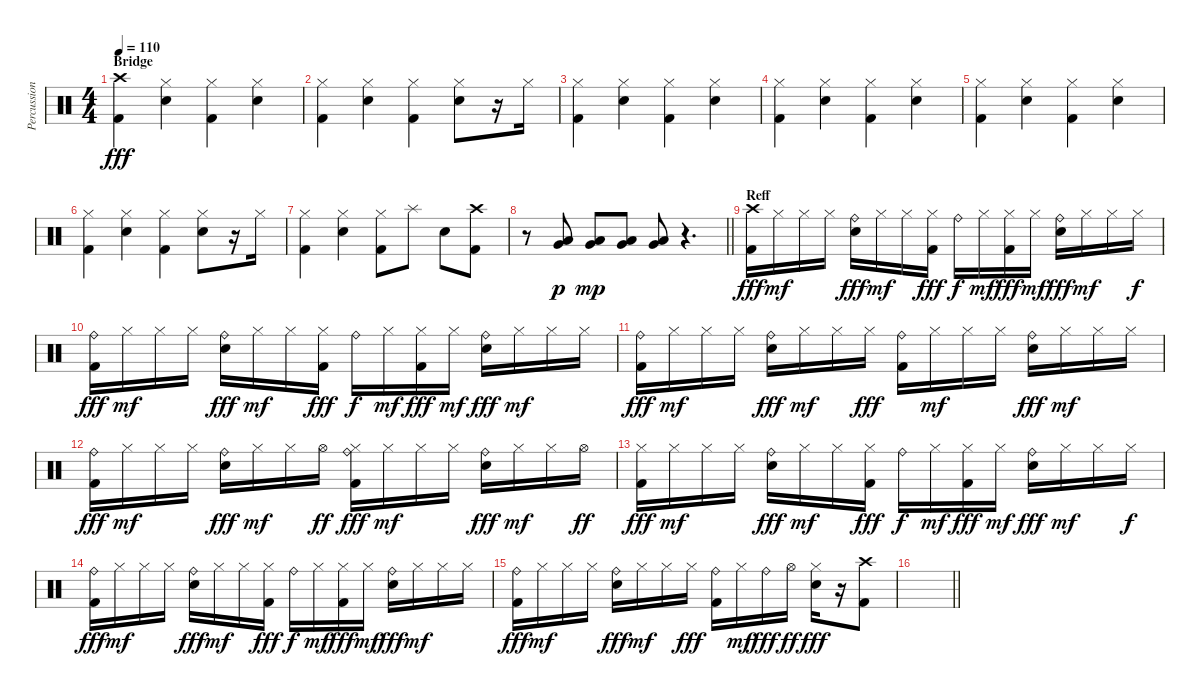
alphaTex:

\track ("Percussion" "Percussion") {instrument percussion}
\staff {score}
\articulation defaults
\ts (4 4)
\section ("" "Bridge")
\tempo 110
\clef neutral
\ks c
("Crash high (hit)" "Kick (hit) 2").4{dy fff} ("Hi-Hat (closed)" "Electric Snare (hit)").4 ("Hi-Hat (closed)" "Kick (hit) 2").4 ("Hi-Hat (closed)" "Electric Snare (hit)").4 |
("Hi-Hat (closed)" "Kick (hit) 2").4 ("Hi-Hat (closed)" "Electric Snare (hit)").4 ("Hi-Hat (closed)" "Kick (hit) 2").4 ("Hi-Hat (closed)" "Electric Snare (hit)").8 r.16 "Hi-Hat (closed)".16 |
("Hi-Hat (closed)" "Kick (hit) 2").4 ("Hi-Hat (closed)" "Electric Snare (hit)").4 ("Hi-Hat (closed)" "Kick (hit) 2").4 ("Hi-Hat (closed)" "Electric Snare (hit)").4 |
("Hi-Hat (closed)" "Kick (hit) 2").4 ("Hi-Hat (closed)" "Electric Snare (hit)").4 ("Hi-Hat (closed)" "Kick (hit) 2").4 ("Hi-Hat (closed)" "Electric Snare (hit)").4 |
("Hi-Hat (closed)" "Kick (hit) 2").4 ("Hi-Hat (closed)" "Electric Snare (hit)").4 ("Hi-Hat (closed)" "Kick (hit) 2").4 ("Hi-Hat (closed)" "Electric Snare (hit)").4 |
("Hi-Hat (closed)" "Kick (hit) 2").4 ("Hi-Hat (closed)" "Electric Snare (hit)").4 ("Hi-Hat (closed)" "Kick (hit) 2").4 ("Hi-Hat (closed)" "Electric Snare (hit)").8 r.16 "Hi-Hat (closed)".16 |
("Hi-Hat (closed)" "Kick (hit) 2").4 ("Hi-Hat (closed)" "Electric Snare (hit)").4 ("Hi-Hat (closed)" "Kick (hit) 2").8 "Splash (hit)".8 "Electric Snare (hit)".8 ("Crash high (hit)" "Kick (hit) 2").8 |
\barLineRight lightlight
r.8 ("Very Low Tom (hit)" "Low Floor Tom (hit)").8{dy p} ("Very Low Tom (hit)" "Low Floor Tom (hit)").8{dy mp} ("Very Low Tom (hit)" "Low Floor Tom (hit)").8 ("Very Low Tom (hit)" "Low Floor Tom (hit)").8 r.4{d} |
\section ("" "Reff")
("Crash high (hit)" "Kick (hit) 2").16{dy fff} "Hi-Hat (closed)".16{dy mf} "Hi-Hat (closed)".16 "Hi-Hat (closed)".16 ("Ride (bell)" "Electric Snare (hit)").16{dy fff} "Hi-Hat (closed)".16{dy mf} "Hi-Hat (closed)".16 ("Hi-Hat (closed)" "Kick (hit) 2").16{dy fff} "Ride (bell)".16{dy f} "Hi-Hat (closed)".16{dy mf} ("Hi-Hat (closed)" "Kick (hit) 2").16{dy fff} "Hi-Hat (closed)".16{dy mf} ("Ride (bell)" "Electric Snare (hit)").16{dy fff} "Hi-Hat (closed)".16{dy mf} "Hi-Hat (closed)".16 "Hi-Hat (closed)".16{dy f} |
("Ride (bell)" "Kick (hit) 2").16{dy fff} "Hi-Hat (closed)".16{dy mf} "Hi-Hat (closed)".16 "Hi-Hat (closed)".16 ("Ride (bell)" "Electric Snare (hit)").16{dy fff} "Hi-Hat (closed)".16{dy mf} "Hi-Hat (closed)".16 ("Hi-Hat (closed)" "Kick (hit) 2").16{dy fff} "Ride (bell)".16{dy f} "Hi-Hat (closed)".16{dy mf} ("Hi-Hat (closed)" "Kick (hit) 2").16{dy fff} "Hi-Hat (closed)".16{dy mf} ("Ride (bell)" "Electric Snare (hit)").16{dy fff} "Hi-Hat (closed)".16{dy mf} "Hi-Hat (closed)".16 "Hi-Hat (closed)".16 |
("Ride (bell)" "Kick (hit) 2").16{dy fff} "Hi-Hat (closed)".16{dy mf} "Hi-Hat (closed)".16 "Hi-Hat (closed)".16 ("Ride (bell)" "Electric Snare (hit)").16{dy fff} "Hi-Hat (closed)".16{dy mf} "Hi-Hat (closed)".16 "Hi-Hat (closed)".16{dy fff} ("Ride (bell)" "Kick (hit) 2").16 "Hi-Hat (closed)".16{dy mf} "Hi-Hat (closed)".16 "Hi-Hat (closed)".16 ("Ride (bell)" "Electric Snare (hit)").16{dy fff} "Hi-Hat (closed)".16{dy mf} "Hi-Hat (closed)".16 "Hi-Hat (closed)".16 |
("Ride (bell)" "Kick (hit) 2").16{dy fff} "Hi-Hat (closed)".16{dy mf} "Hi-Hat (closed)".16 "Hi-Hat (closed)".16 ("Ride (bell)" "Electric Snare (hit)").16{dy fff} "Hi-Hat (closed)".16{dy mf} "Hi-Hat (closed)".16 "Hi-Hat (open)".16{dy ff} ("Hi-Hat (closed)" "Ride (bell)" "Kick (hit) 2").16{dy fff} "Hi-Hat (closed)".16{dy mf} "Hi-Hat (closed)".16 "Hi-Hat (closed)".16 ("Ride (bell)" "Electric Snare (hit)").16{dy fff} "Hi-Hat (closed)".16{dy mf} "Hi-Hat (closed)".16 "Hi-Hat (open)".16{dy ff} |
("Hi-Hat (closed)" "Kick (hit) 2").16{dy fff} "Hi-Hat (closed)".16{dy mf} "Hi-Hat (closed)".16 "Hi-Hat (closed)".16 ("Ride (bell)" "Electric Snare (hit)").16{dy fff} "Hi-Hat (closed)".16{dy mf} "Hi-Hat (closed)".16 ("Hi-Hat (closed)" "Kick (hit) 2").16{dy fff} "Ride (bell)".16{dy f} "Hi-Hat (closed)".16{dy mf} ("Hi-Hat (closed)" "Kick (hit) 2").16{dy fff} "Hi-Hat (closed)".16{dy mf} ("Ride (bell)" "Electric Snare (hit)").16{dy fff} "Hi-Hat (closed)".16{dy mf} "Hi-Hat (closed)".16 "Hi-Hat (closed)".16{dy f} |
("Ride (bell)" "Kick (hit) 2").16{dy fff} "Hi-Hat (closed)".16{dy mf} "Hi-Hat (closed)".16 "Hi-Hat (closed)".16 ("Ride (bell)" "Electric Snare (hit)").16{dy fff} "Hi-Hat (closed)".16{dy mf} "Hi-Hat (closed)".16 ("Hi-Hat (closed)" "Kick (hit) 2").16{dy fff} "Ride (bell)".16{dy f} "Hi-Hat (closed)".16{dy mf} ("Hi-Hat (closed)" "Kick (hit) 2").16{dy fff} "Hi-Hat (closed)".16{dy mf} ("Ride (bell)" "Electric Snare (hit)").16{dy fff} "Hi-Hat (closed)".16{dy mf} "Hi-Hat (closed)".16 "Hi-Hat (closed)".16 |
("Ride (bell)" "Kick (hit) 2").16{dy fff} "Hi-Hat (closed)".16{dy mf} "Hi-Hat (closed)".16 "Hi-Hat (closed)".16 ("Ride (bell)" "Electric Snare (hit)").16{dy fff} "Hi-Hat (closed)".16{dy mf} "Hi-Hat (closed)".16 "Hi-Hat (closed)".16{dy fff} ("Ride (bell)" "Kick (hit) 2").16 "Hi-Hat (closed)".16{dy mf} "Ride (bell)".16{dy fff} "Hi-Hat (open)".16{dy ff} ("Hi-Hat (closed)" "Electric Snare (hit)").16{dy fff} r.16 ("Crash high (hit)" "Kick (hit) 2").8 |
\barLineRight lightlight
